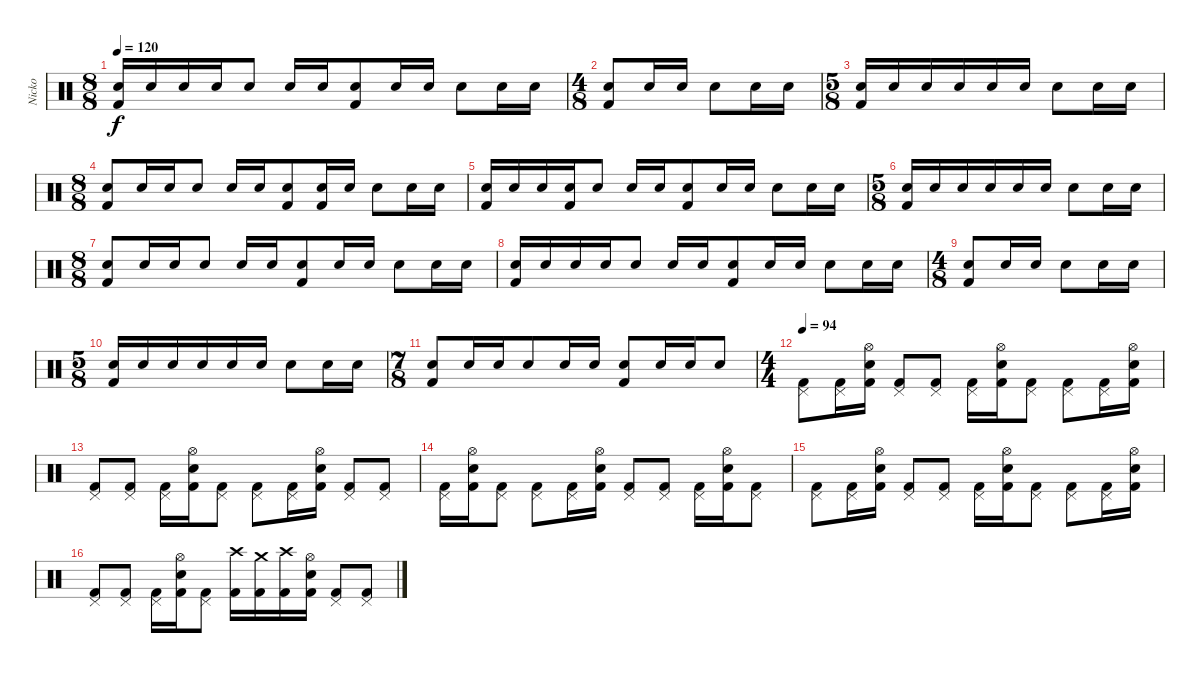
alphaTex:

\track ("Nicko" "Nicko") {instrument percussion}
\staff {score}
\articulation defaults
\ts (8 8)
\tempo 120
\clef neutral
\ks c
("Electric Snare (hit)" "Kick (hit) 2").16{dy f} "Electric Snare (hit)".16 "Electric Snare (hit)".16 "Electric Snare (hit)".16 "Electric Snare (hit)".8 "Electric Snare (hit)".16 "Electric Snare (hit)".16 ("Electric Snare (hit)" "Kick (hit) 2").8 "Electric Snare (hit)".16 "Electric Snare (hit)".16 "Electric Snare (hit)".8 "Electric Snare (hit)".16 "Electric Snare (hit)".16 |
\ts (4 8)
("Electric Snare (hit)" "Kick (hit) 2").8 "Electric Snare (hit)".16 "Electric Snare (hit)".16 "Electric Snare (hit)".8 "Electric Snare (hit)".16 "Electric Snare (hit)".16 |
\ts (5 8)
("Electric Snare (hit)" "Kick (hit) 2").16 "Electric Snare (hit)".16 "Electric Snare (hit)".16 "Electric Snare (hit)".16 "Electric Snare (hit)".16 "Electric Snare (hit)".16 "Electric Snare (hit)".8 "Electric Snare (hit)".16 "Electric Snare (hit)".16 |
\ts (8 8)
("Electric Snare (hit)" "Kick (hit) 2").8 "Electric Snare (hit)".16 "Electric Snare (hit)".16 "Electric Snare (hit)".8 "Electric Snare (hit)".16 "Electric Snare (hit)".16 ("Electric Snare (hit)" "Kick (hit) 2").8 ("Electric Snare (hit)" "Kick (hit) 2").16 "Electric Snare (hit)".16 "Electric Snare (hit)".8 "Electric Snare (hit)".16 "Electric Snare (hit)".16 |
("Electric Snare (hit)" "Kick (hit) 2").16 "Electric Snare (hit)".16 "Electric Snare (hit)".16 ("Electric Snare (hit)" "Kick (hit) 2").16 "Electric Snare (hit)".8 "Electric Snare (hit)".16 "Electric Snare (hit)".16 ("Electric Snare (hit)" "Kick (hit) 2").8 "Electric Snare (hit)".16 "Electric Snare (hit)".16 "Electric Snare (hit)".8 "Electric Snare (hit)".16 "Electric Snare (hit)".16 |
\ts (5 8)
("Electric Snare (hit)" "Kick (hit) 2").16 "Electric Snare (hit)".16 "Electric Snare (hit)".16 "Electric Snare (hit)".16 "Electric Snare (hit)".16 "Electric Snare (hit)".16 "Electric Snare (hit)".8 "Electric Snare (hit)".16 "Electric Snare (hit)".16 |
\ts (8 8)
("Electric Snare (hit)" "Kick (hit) 2").8 "Electric Snare (hit)".16 "Electric Snare (hit)".16 "Electric Snare (hit)".8 "Electric Snare (hit)".16 "Electric Snare (hit)".16 ("Electric Snare (hit)" "Kick (hit) 2").8 "Electric Snare (hit)".16 "Electric Snare (hit)".16 "Electric Snare (hit)".8 "Electric Snare (hit)".16 "Electric Snare (hit)".16 |
("Electric Snare (hit)" "Kick (hit) 2").16 "Electric Snare (hit)".16 "Electric Snare (hit)".16 "Electric Snare (hit)".16 "Electric Snare (hit)".8 "Electric Snare (hit)".16 "Electric Snare (hit)".16 ("Electric Snare (hit)" "Kick (hit) 2").8 "Electric Snare (hit)".16 "Electric Snare (hit)".16 "Electric Snare (hit)".8 "Electric Snare (hit)".16 "Electric Snare (hit)".16 |
\ts (4 8)
("Electric Snare (hit)" "Kick (hit) 2").8 "Electric Snare (hit)".16 "Electric Snare (hit)".16 "Electric Snare (hit)".8 "Electric Snare (hit)".16 "Electric Snare (hit)".16 |
\ts (5 8)
("Electric Snare (hit)" "Kick (hit) 2").16 "Electric Snare (hit)".16 "Electric Snare (hit)".16 "Electric Snare (hit)".16 "Electric Snare (hit)".16 "Electric Snare (hit)".16 "Electric Snare (hit)".8 "Electric Snare (hit)".16 "Electric Snare (hit)".16 |
\ts (7 8)
("Electric Snare (hit)" "Kick (hit) 2").8 "Electric Snare (hit)".16 "Electric Snare (hit)".16 "Electric Snare (hit)".8 "Electric Snare (hit)".16 "Electric Snare (hit)".16 ("Electric Snare (hit)" "Kick (hit) 2").8 "Electric Snare (hit)".16 "Electric Snare (hit)".16 "Electric Snare (hit)".8 |
\ts (4 4)
\tempo 107
\tempo 94
("Kick (hit) 2" "Pedal Hi-Hat (hit)").8 ("Kick (hit) 2" "Pedal Hi-Hat (hit)").16 ("Kick (hit) 2" "Electric Snare (hit)" "Hi-Hat (open)").16 ("Kick (hit) 2" "Pedal Hi-Hat (hit)").8 ("Kick (hit) 2" "Pedal Hi-Hat (hit)").8 ("Kick (hit) 2" "Pedal Hi-Hat (hit)").16 ("Kick (hit) 2" "Electric Snare (hit)" "Hi-Hat (open)").16 ("Kick (hit) 2" "Pedal Hi-Hat (hit)").8 ("Kick (hit) 2" "Pedal Hi-Hat (hit)").8 ("Kick (hit) 2" "Pedal Hi-Hat (hit)").16 ("Kick (hit) 2" "Electric Snare (hit)" "Hi-Hat (open)").16 |
("Kick (hit) 2" "Pedal Hi-Hat (hit)").8 ("Kick (hit) 2" "Pedal Hi-Hat (hit)").8 ("Kick (hit) 2" "Pedal Hi-Hat (hit)").16 ("Kick (hit) 2" "Electric Snare (hit)" "Hi-Hat (open)").16 ("Kick (hit) 2" "Pedal Hi-Hat (hit)").8 ("Kick (hit) 2" "Pedal Hi-Hat (hit)").8 ("Kick (hit) 2" "Pedal Hi-Hat (hit)").16 ("Kick (hit) 2" "Electric Snare (hit)" "Hi-Hat (open)").16 ("Kick (hit) 2" "Pedal Hi-Hat (hit)").8 ("Kick (hit) 2" "Pedal Hi-Hat (hit)").8 |
("Kick (hit) 2" "Pedal Hi-Hat (hit)").16 ("Kick (hit) 2" "Electric Snare (hit)" "Hi-Hat (open)").16 ("Kick (hit) 2" "Pedal Hi-Hat (hit)").8 ("Kick (hit) 2" "Pedal Hi-Hat (hit)").8 ("Kick (hit) 2" "Pedal Hi-Hat (hit)").16 ("Kick (hit) 2" "Electric Snare (hit)" "Hi-Hat (open)").16 ("Kick (hit) 2" "Pedal Hi-Hat (hit)").8 ("Kick (hit) 2" "Pedal Hi-Hat (hit)").8 ("Kick (hit) 2" "Pedal Hi-Hat (hit)").16 ("Kick (hit) 2" "Electric Snare (hit)" "Hi-Hat (open)").16 ("Kick (hit) 2" "Pedal Hi-Hat (hit)").8 |
("Kick (hit) 2" "Pedal Hi-Hat (hit)").8 ("Kick (hit) 2" "Pedal Hi-Hat (hit)").16 ("Kick (hit) 2" "Electric Snare (hit)" "Hi-Hat (open)").16 ("Kick (hit) 2" "Pedal Hi-Hat (hit)").8 ("Kick (hit) 2" "Pedal Hi-Hat (hit)").8 ("Kick (hit) 2" "Pedal Hi-Hat (hit)").16 ("Kick (hit) 2" "Electric Snare (hit)" "Hi-Hat (open)").16 ("Kick (hit) 2" "Pedal Hi-Hat (hit)").8 ("Kick (hit) 2" "Pedal Hi-Hat (hit)").8 ("Kick (hit) 2" "Pedal Hi-Hat (hit)").16 ("Kick (hit) 2" "Electric Snare (hit)" "Hi-Hat (open)").16 |
("Kick (hit) 2" "Pedal Hi-Hat (hit)").8 ("Kick (hit) 2" "Pedal Hi-Hat (hit)").8 ("Kick (hit) 2" "Pedal Hi-Hat (hit)").16 ("Kick (hit) 2" "Electric Snare (hit)" "Hi-Hat (open)").16 ("Kick (hit) 2" "Pedal Hi-Hat (hit)").8 ("Kick (hit) 2" "Crash high (hit)").16 ("Kick (hit) 2" "Crash medium (hit)").16 ("Kick (hit) 2" "Crash high (hit)").16 ("Kick (hit) 2" "Electric Snare (hit)" "Hi-Hat (open)").16 ("Kick (hit) 2" "Pedal Hi-Hat (hit)").8 ("Kick (hit) 2" "Pedal Hi-Hat (hit)").8
